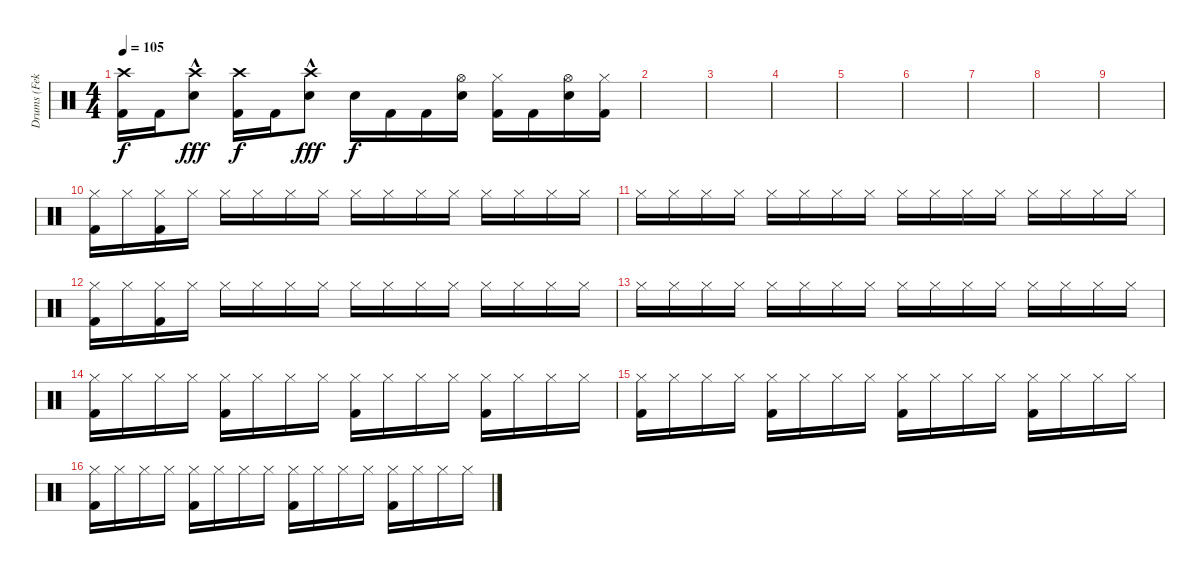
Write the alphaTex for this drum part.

\track ("Drums (Fekete 'Feka' Balázs)" "Drums (Fek") {instrument percussion}
\staff {score}
\articulation defaults
\ts (4 4)
\tempo 105
\clef neutral
\ks c
("Crash high (hit)" "Kick (hit) 2").16{dy f} "Kick (hit) 2".16 ("Crash high (hit)" "Snare (hit) 2"{hac}).8{dy fff} ("Crash high (hit)" "Kick (hit) 2").16{dy f} "Kick (hit) 2".16 ("Crash high (hit)" "Snare (hit) 2"{hac}).8{dy fff} "Snare (hit) 2".16{dy f} "Kick (hit) 2".16 "Kick (hit) 2".16 ("Hi-Hat (open)" "Snare (hit) 2").16 ("Hi-Hat (closed)" "Kick (hit) 2").16 "Kick (hit) 2".16 ("Hi-Hat (open)" "Snare (hit) 2").16 ("Hi-Hat (closed)" "Kick (hit) 2").16 |
|
|
|
|
|
|
|
|
("Hi-Hat (closed)" "Kick (hit) 2").16 "Hi-Hat (closed)".16 ("Hi-Hat (closed)" "Kick (hit) 2").16 "Hi-Hat (closed)".16 "Hi-Hat (closed)".16 "Hi-Hat (closed)".16 "Hi-Hat (closed)".16 "Hi-Hat (closed)".16 "Hi-Hat (closed)".16 "Hi-Hat (closed)".16 "Hi-Hat (closed)".16 "Hi-Hat (closed)".16 "Hi-Hat (closed)".16 "Hi-Hat (closed)".16 "Hi-Hat (closed)".16 "Hi-Hat (closed)".16 |
"Hi-Hat (closed)".16 "Hi-Hat (closed)".16 "Hi-Hat (closed)".16 "Hi-Hat (closed)".16 "Hi-Hat (closed)".16 "Hi-Hat (closed)".16 "Hi-Hat (closed)".16 "Hi-Hat (closed)".16 "Hi-Hat (closed)".16 "Hi-Hat (closed)".16 "Hi-Hat (closed)".16 "Hi-Hat (closed)".16 "Hi-Hat (closed)".16 "Hi-Hat (closed)".16 "Hi-Hat (closed)".16 "Hi-Hat (closed)".16 |
("Hi-Hat (closed)" "Kick (hit) 2").16 "Hi-Hat (closed)".16 ("Hi-Hat (closed)" "Kick (hit) 2").16 "Hi-Hat (closed)".16 "Hi-Hat (closed)".16 "Hi-Hat (closed)".16 "Hi-Hat (closed)".16 "Hi-Hat (closed)".16 "Hi-Hat (closed)".16 "Hi-Hat (closed)".16 "Hi-Hat (closed)".16 "Hi-Hat (closed)".16 "Hi-Hat (closed)".16 "Hi-Hat (closed)".16 "Hi-Hat (closed)".16 "Hi-Hat (closed)".16 |
"Hi-Hat (closed)".16 "Hi-Hat (closed)".16 "Hi-Hat (closed)".16 "Hi-Hat (closed)".16 "Hi-Hat (closed)".16 "Hi-Hat (closed)".16 "Hi-Hat (closed)".16 "Hi-Hat (closed)".16 "Hi-Hat (closed)".16 "Hi-Hat (closed)".16 "Hi-Hat (closed)".16 "Hi-Hat (closed)".16 "Hi-Hat (closed)".16 "Hi-Hat (closed)".16 "Hi-Hat (closed)".16 "Hi-Hat (closed)".16 |
("Hi-Hat (closed)" "Kick (hit) 2").16 "Hi-Hat (closed)".16 "Hi-Hat (closed)".16 "Hi-Hat (closed)".16 ("Hi-Hat (closed)" "Kick (hit) 2").16 "Hi-Hat (closed)".16 "Hi-Hat (closed)".16 "Hi-Hat (closed)".16 ("Hi-Hat (closed)" "Kick (hit) 2").16 "Hi-Hat (closed)".16 "Hi-Hat (closed)".16 "Hi-Hat (closed)".16 ("Hi-Hat (closed)" "Kick (hit) 2").16 "Hi-Hat (closed)".16 "Hi-Hat (closed)".16 "Hi-Hat (closed)".16 |
("Hi-Hat (closed)" "Kick (hit) 2").16 "Hi-Hat (closed)".16 "Hi-Hat (closed)".16 "Hi-Hat (closed)".16 ("Hi-Hat (closed)" "Kick (hit) 2").16 "Hi-Hat (closed)".16 "Hi-Hat (closed)".16 "Hi-Hat (closed)".16 ("Hi-Hat (closed)" "Kick (hit) 2").16 "Hi-Hat (closed)".16 "Hi-Hat (closed)".16 "Hi-Hat (closed)".16 ("Hi-Hat (closed)" "Kick (hit) 2").16 "Hi-Hat (closed)".16 "Hi-Hat (closed)".16 "Hi-Hat (closed)".16 |
("Hi-Hat (closed)" "Kick (hit) 2").16 "Hi-Hat (closed)".16 "Hi-Hat (closed)".16 "Hi-Hat (closed)".16 ("Hi-Hat (closed)" "Kick (hit) 2").16 "Hi-Hat (closed)".16 "Hi-Hat (closed)".16 "Hi-Hat (closed)".16 ("Hi-Hat (closed)" "Kick (hit) 2").16 "Hi-Hat (closed)".16 "Hi-Hat (closed)".16 "Hi-Hat (closed)".16 ("Hi-Hat (closed)" "Kick (hit) 2").16 "Hi-Hat (closed)".16 "Hi-Hat (closed)".16 "Hi-Hat (closed)".16
